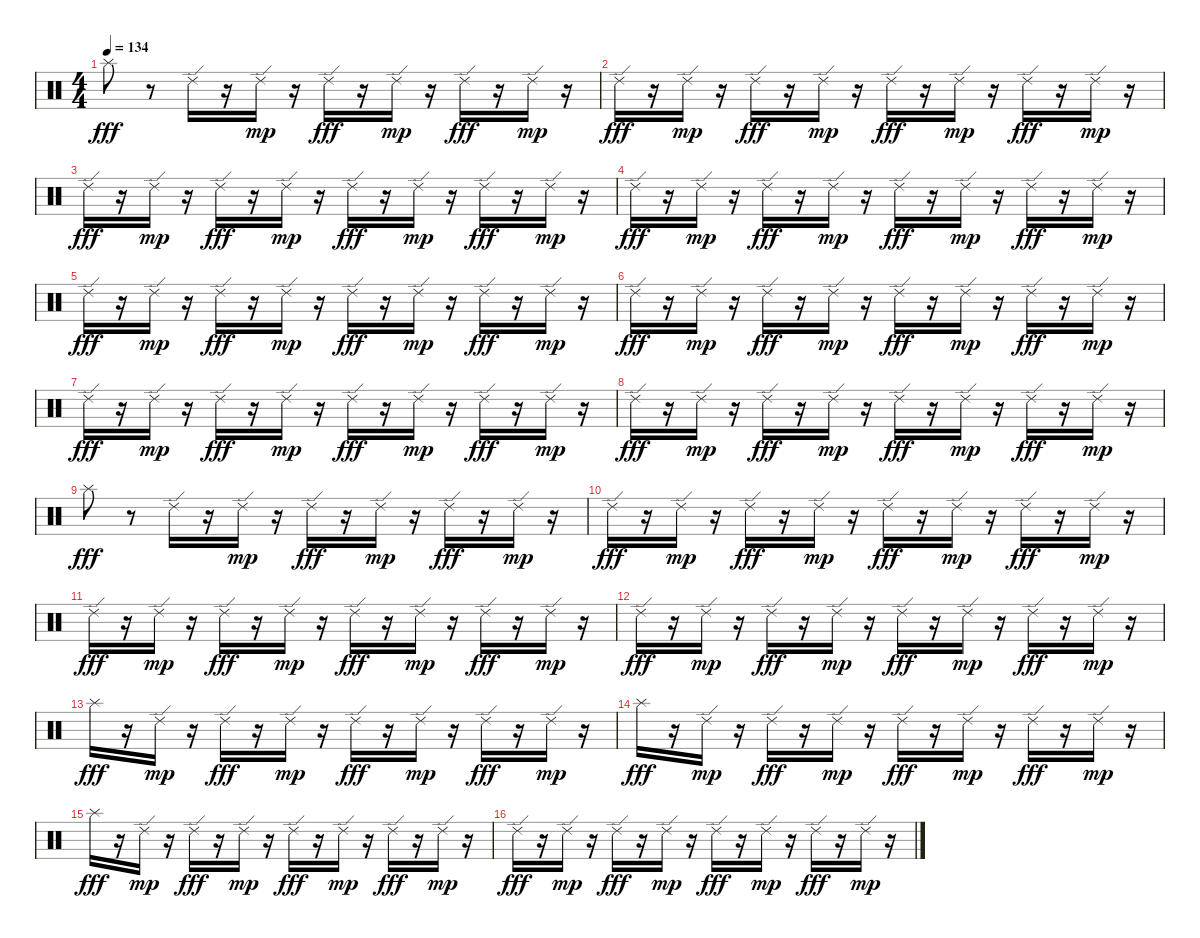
\track "" {instrument percussion}
\staff {score}
\articulation defaults
\ts (4 4)
\tempo 134
\clef neutral
\ks c "Splash (hit)".8{dy fff}
r.8 "Ride (edge) 2".16 r.16 "Ride (edge) 2".16{dy mp} r.16 "Ride (edge) 2".16{dy fff} r.16 "Ride (edge) 2".16{dy mp} r.16 "Ride (edge) 2".16{dy fff} r.16 "Ride (edge) 2".16{dy mp} r.16 |
"Ride (edge) 2".16{dy fff} r.16 "Ride (edge) 2".16{dy mp} r.16 "Ride (edge) 2".16{dy fff} r.16 "Ride (edge) 2".16{dy mp} r.16 "Ride (edge) 2".16{dy fff} r.16 "Ride (edge) 2".16{dy mp} r.16 "Ride (edge) 2".16{dy fff} r.16 "Ride (edge) 2".16{dy mp} r.16 |
"Ride (edge) 2".16{dy fff} r.16 "Ride (edge) 2".16{dy mp} r.16 "Ride (edge) 2".16{dy fff} r.16 "Ride (edge) 2".16{dy mp} r.16 "Ride (edge) 2".16{dy fff} r.16 "Ride (edge) 2".16{dy mp} r.16 "Ride (edge) 2".16{dy fff} r.16 "Ride (edge) 2".16{dy mp} r.16 |
"Ride (edge) 2".16{dy fff} r.16 "Ride (edge) 2".16{dy mp} r.16 "Ride (edge) 2".16{dy fff} r.16 "Ride (edge) 2".16{dy mp} r.16 "Ride (edge) 2".16{dy fff} r.16 "Ride (edge) 2".16{dy mp} r.16 "Ride (edge) 2".16{dy fff} r.16 "Ride (edge) 2".16{dy mp} r.16 |
"Ride (edge) 2".16{dy fff} r.16 "Ride (edge) 2".16{dy mp} r.16 "Ride (edge) 2".16{dy fff} r.16 "Ride (edge) 2".16{dy mp} r.16 "Ride (edge) 2".16{dy fff} r.16 "Ride (edge) 2".16{dy mp} r.16 "Ride (edge) 2".16{dy fff} r.16 "Ride (edge) 2".16{dy mp} r.16 |
"Ride (edge) 2".16{dy fff} r.16 "Ride (edge) 2".16{dy mp} r.16 "Ride (edge) 2".16{dy fff} r.16 "Ride (edge) 2".16{dy mp} r.16 "Ride (edge) 2".16{dy fff} r.16 "Ride (edge) 2".16{dy mp} r.16 "Ride (edge) 2".16{dy fff} r.16 "Ride (edge) 2".16{dy mp} r.16 |
"Ride (edge) 2".16{dy fff} r.16 "Ride (edge) 2".16{dy mp} r.16 "Ride (edge) 2".16{dy fff} r.16 "Ride (edge) 2".16{dy mp} r.16 "Ride (edge) 2".16{dy fff} r.16 "Ride (edge) 2".16{dy mp} r.16 "Ride (edge) 2".16{dy fff} r.16 "Ride (edge) 2".16{dy mp} r.16 |
"Ride (edge) 2".16{dy fff} r.16 "Ride (edge) 2".16{dy mp} r.16 "Ride (edge) 2".16{dy fff} r.16 "Ride (edge) 2".16{dy mp} r.16 "Ride (edge) 2".16{dy fff} r.16 "Ride (edge) 2".16{dy mp} r.16 "Ride (edge) 2".16{dy fff} r.16 "Ride (edge) 2".16{dy mp} r.16 |
"Splash (hit)".8{dy fff} r.8 "Ride (edge) 2".16 r.16 "Ride (edge) 2".16{dy mp} r.16 "Ride (edge) 2".16{dy fff} r.16 "Ride (edge) 2".16{dy mp} r.16 "Ride (edge) 2".16{dy fff} r.16 "Ride (edge) 2".16{dy mp} r.16 |
"Ride (edge) 2".16{dy fff} r.16 "Ride (edge) 2".16{dy mp} r.16 "Ride (edge) 2".16{dy fff} r.16 "Ride (edge) 2".16{dy mp} r.16 "Ride (edge) 2".16{dy fff} r.16 "Ride (edge) 2".16{dy mp} r.16 "Ride (edge) 2".16{dy fff} r.16 "Ride (edge) 2".16{dy mp} r.16 |
"Ride (edge) 2".16{dy fff} r.16 "Ride (edge) 2".16{dy mp} r.16 "Ride (edge) 2".16{dy fff} r.16 "Ride (edge) 2".16{dy mp} r.16 "Ride (edge) 2".16{dy fff} r.16 "Ride (edge) 2".16{dy mp} r.16 "Ride (edge) 2".16{dy fff} r.16 "Ride (edge) 2".16{dy mp} r.16 |
"Ride (edge) 2".16{dy fff} r.16 "Ride (edge) 2".16{dy mp} r.16 "Ride (edge) 2".16{dy fff} r.16 "Ride (edge) 2".16{dy mp} r.16 "Ride (edge) 2".16{dy fff} r.16 "Ride (edge) 2".16{dy mp} r.16 "Ride (edge) 2".16{dy fff} r.16 "Ride (edge) 2".16{dy mp} r.16 |
"Splash (hit)".16{dy fff} r.16 "Ride (edge) 2".16{dy mp} r.16 "Ride (edge) 2".16{dy fff} r.16 "Ride (edge) 2".16{dy mp} r.16 "Ride (edge) 2".16{dy fff} r.16 "Ride (edge) 2".16{dy mp} r.16 "Ride (edge) 2".16{dy fff} r.16 "Ride (edge) 2".16{dy mp} r.16 |
"Splash (hit)".16{dy fff} r.16 "Ride (edge) 2".16{dy mp} r.16 "Ride (edge) 2".16{dy fff} r.16 "Ride (edge) 2".16{dy mp} r.16 "Ride (edge) 2".16{dy fff} r.16 "Ride (edge) 2".16{dy mp} r.16 "Ride (edge) 2".16{dy fff} r.16 "Ride (edge) 2".16{dy mp} r.16 |
"Splash (hit)".16{dy fff} r.16 "Ride (edge) 2".16{dy mp} r.16 "Ride (edge) 2".16{dy fff} r.16 "Ride (edge) 2".16{dy mp} r.16 "Ride (edge) 2".16{dy fff} r.16 "Ride (edge) 2".16{dy mp} r.16 "Ride (edge) 2".16{dy fff} r.16 "Ride (edge) 2".16{dy mp} r.16 |
"Ride (edge) 2".16{dy fff} r.16 "Ride (edge) 2".16{dy mp} r.16 "Ride (edge) 2".16{dy fff} r.16 "Ride (edge) 2".16{dy mp} r.16 "Ride (edge) 2".16{dy fff} r.16 "Ride (edge) 2".16{dy mp} r.16 "Ride (edge) 2".16{dy fff} r.16 "Ride (edge) 2".16{dy mp} r.16
